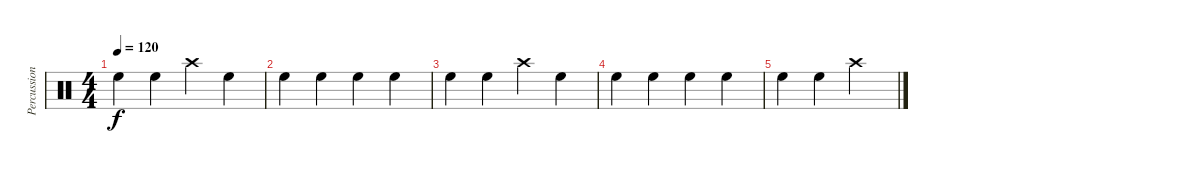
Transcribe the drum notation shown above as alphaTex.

\track ("Percussion" "Percussion") {instrument percussion}
\staff {score}
\articulation defaults
\ts (4 4)
\tempo 120
\clef neutral
\ks c "High Floor Tom (hit)".4{dy f} "High Floor Tom (hit)".4 "Crash high (hit)".4 "High Floor Tom (hit)".4
|
"High Floor Tom (hit)".4 "High Floor Tom (hit)".4 "High Floor Tom (hit)".4 "High Floor Tom (hit)".4 |
"High Floor Tom (hit)".4 "High Floor Tom (hit)".4 "Crash high (hit)".4 "High Floor Tom (hit)".4 |
"High Floor Tom (hit)".4 "High Floor Tom (hit)".4 "High Floor Tom (hit)".4 "High Floor Tom (hit)".4 |
"High Floor Tom (hit)".4 "High Floor Tom (hit)".4 "Crash high (hit)".2
